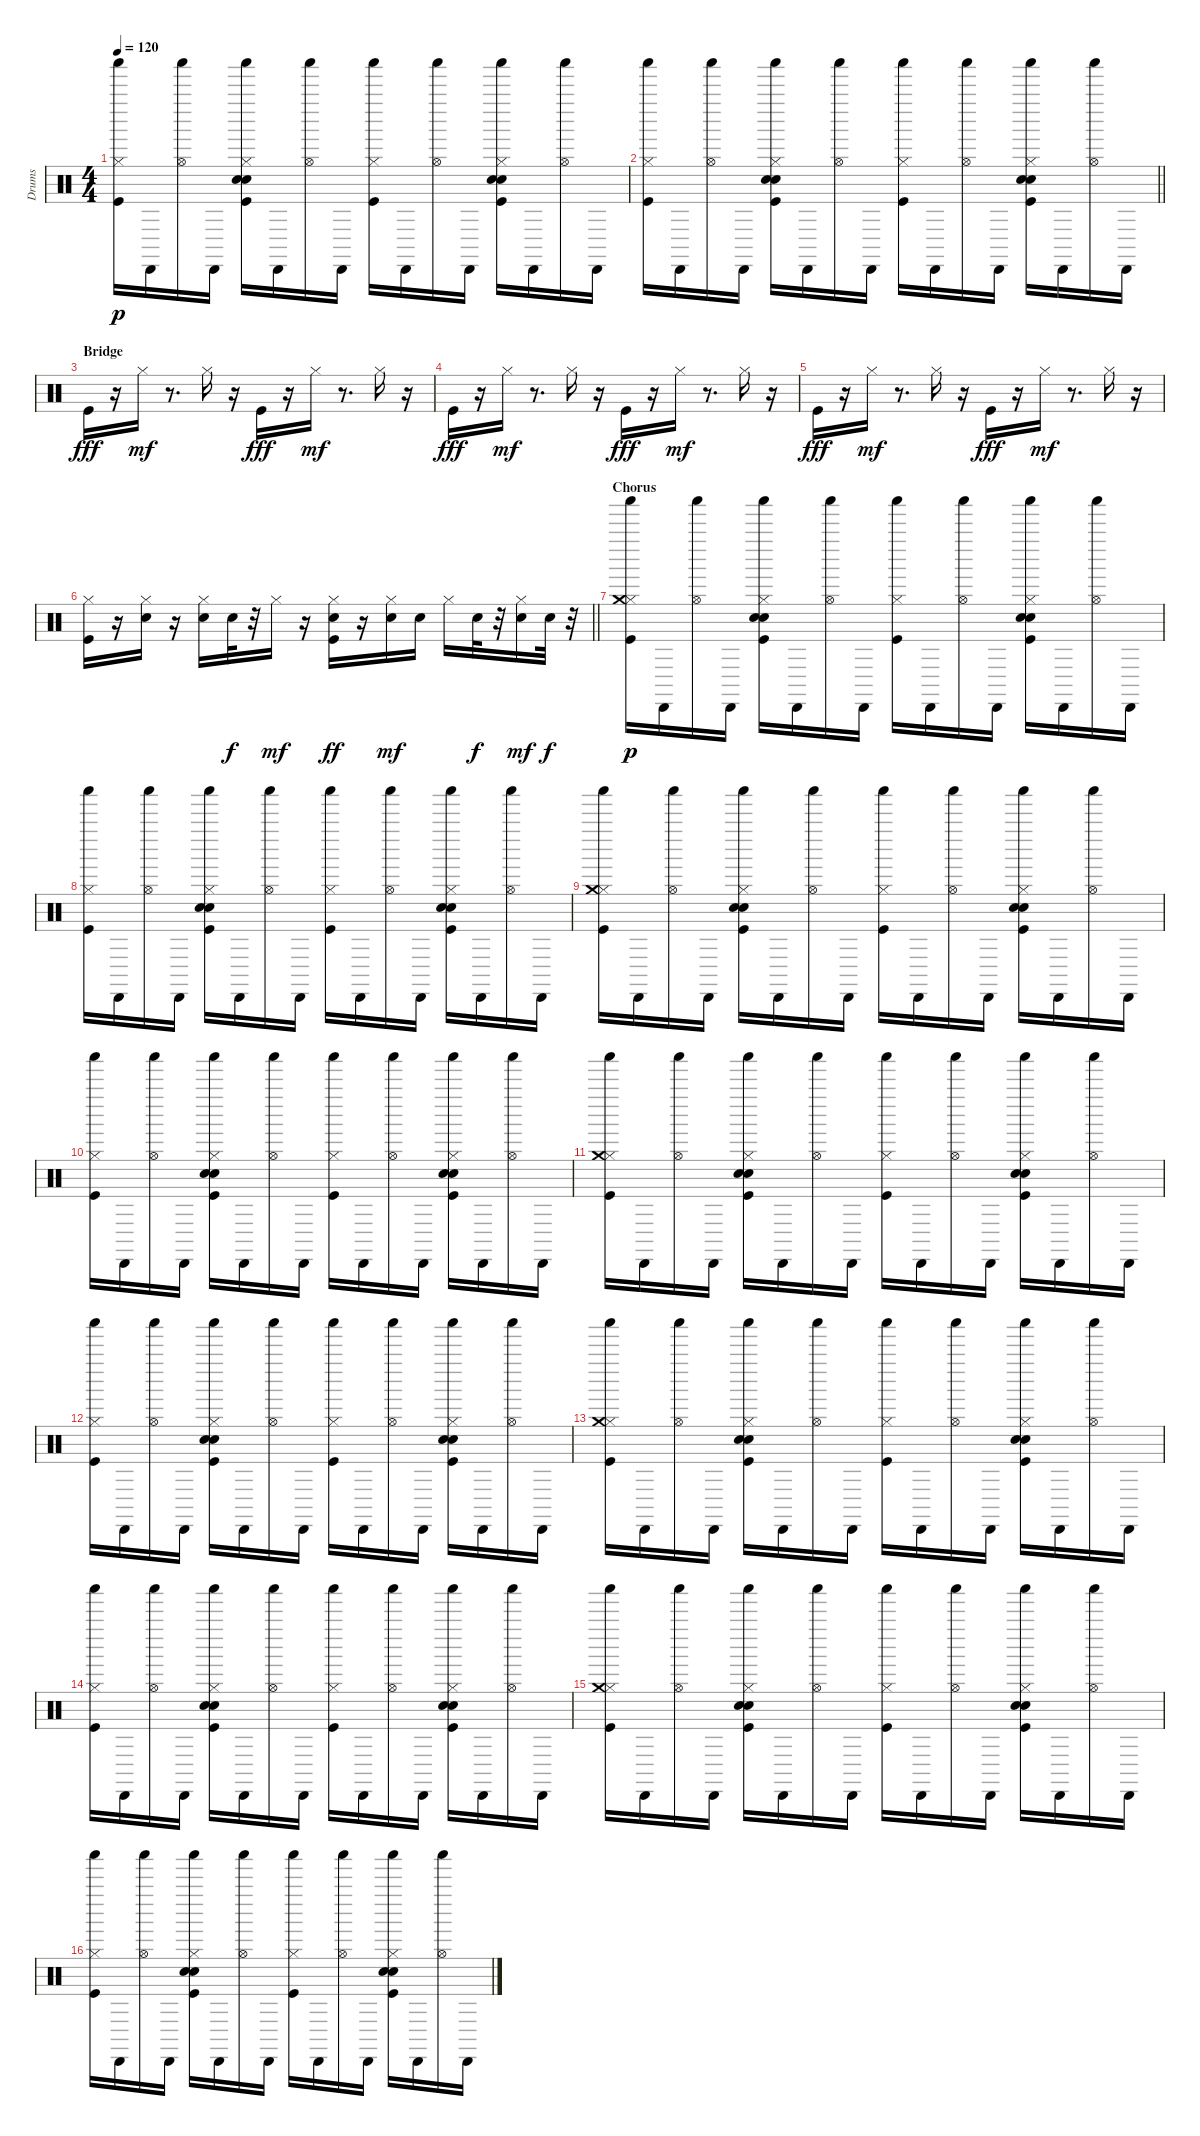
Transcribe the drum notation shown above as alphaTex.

\track ("Drums" "Drums") {instrument percussion}
\staff {score}
\articulation defaults
\ts (4 4)
\tempo 120
\clef neutral
\ks c
("Kick (hit)" "Hi-Hat (closed)" "Shaker (hit)").16{dy p} "Cabasa (hit)".16 ("Hi-Hat (open)" "Shaker (hit)").16 "Cabasa (hit)".16 ("Kick (hit)" "Snare (hit) 2" "Electric Snare (hit)" "Hi-Hat (closed)" "Shaker (hit)").16 "Cabasa (hit)".16 ("Hi-Hat (open)" "Shaker (hit)").16 "Cabasa (hit)".16 ("Kick (hit)" "Hi-Hat (closed)" "Shaker (hit)").16 "Cabasa (hit)".16 ("Hi-Hat (open)" "Shaker (hit)").16 "Cabasa (hit)".16 ("Kick (hit)" "Snare (hit) 2" "Electric Snare (hit)" "Hi-Hat (closed)" "Shaker (hit)").16 "Cabasa (hit)".16 ("Hi-Hat (open)" "Shaker (hit)").16 "Cabasa (hit)".16 |
\barLineRight lightlight
("Kick (hit)" "Hi-Hat (closed)" "Shaker (hit)").16 "Cabasa (hit)".16 ("Hi-Hat (open)" "Shaker (hit)").16 "Cabasa (hit)".16 ("Kick (hit)" "Snare (hit) 2" "Electric Snare (hit)" "Hi-Hat (closed)" "Shaker (hit)").16 "Cabasa (hit)".16 ("Hi-Hat (open)" "Shaker (hit)").16 "Cabasa (hit)".16 ("Kick (hit)" "Hi-Hat (closed)" "Shaker (hit)").16 "Cabasa (hit)".16 ("Hi-Hat (open)" "Shaker (hit)").16 "Cabasa (hit)".16 ("Kick (hit)" "Snare (hit) 2" "Electric Snare (hit)" "Hi-Hat (closed)" "Shaker (hit)").16 "Cabasa (hit)".16 ("Hi-Hat (open)" "Shaker (hit)").16 "Cabasa (hit)".16 |
\section ("" "Bridge")
"Kick (hit)".16{dy fff} r.16 "Hi-Hat (closed)".16{dy mf} r.8{d} "Hi-Hat (closed)".16 r.16 "Kick (hit)".16{dy fff} r.16 "Hi-Hat (closed)".16{dy mf} r.8{d} "Hi-Hat (closed)".16 r.16 |
"Kick (hit)".16{dy fff} r.16 "Hi-Hat (closed)".16{dy mf} r.8{d} "Hi-Hat (closed)".16 r.16 "Kick (hit)".16{dy fff} r.16 "Hi-Hat (closed)".16{dy mf} r.8{d} "Hi-Hat (closed)".16 r.16 |
"Kick (hit)".16{dy fff} r.16 "Hi-Hat (closed)".16{dy mf} r.8{d} "Hi-Hat (closed)".16 r.16 "Kick (hit)".16{dy fff} r.16 "Hi-Hat (closed)".16{dy mf} r.8{d} "Hi-Hat (closed)".16 r.16 |
\barLineRight lightlight
("Kick (hit)" "Hi-Hat (closed)").16 r.16 ("Snare (hit) 2" "Hi-Hat (closed)").16 r.16 ("Hi-Hat (closed)" "Snare (hit) 2").16 "Snare (hit) 2".32{dy f} r.32 "Hi-Hat (closed)".16{dy mf} r.16 ("Hi-Hat (closed)" "Kick (hit)" "Snare (hit) 2").16{dy ff} r.16 ("Snare (hit) 2" "Hi-Hat (closed)").16{dy mf} "Snare (hit) 2".16 "Hi-Hat (closed)".16 "Snare (hit) 2".32{dy f} r.32 ("Snare (hit) 2" "Hi-Hat (closed)").16{dy mf} "Snare (hit) 2".32{dy f} r.32 |
\section ("" "Chorus")
("Kick (hit)" "Hi-Hat (closed)" "Crash medium (hit)" "Shaker (hit)").16{dy p} "Cabasa (hit)".16 ("Hi-Hat (open)" "Shaker (hit)").16 "Cabasa (hit)".16 ("Kick (hit)" "Snare (hit) 2" "Electric Snare (hit)" "Hi-Hat (closed)" "Shaker (hit)").16 "Cabasa (hit)".16 ("Hi-Hat (open)" "Shaker (hit)").16 "Cabasa (hit)".16 ("Kick (hit)" "Hi-Hat (closed)" "Shaker (hit)").16 "Cabasa (hit)".16 ("Hi-Hat (open)" "Shaker (hit)").16 "Cabasa (hit)".16 ("Kick (hit)" "Snare (hit) 2" "Electric Snare (hit)" "Hi-Hat (closed)" "Shaker (hit)").16 "Cabasa (hit)".16 ("Hi-Hat (open)" "Shaker (hit)").16 "Cabasa (hit)".16 |
("Kick (hit)" "Hi-Hat (closed)" "Shaker (hit)").16 "Cabasa (hit)".16 ("Hi-Hat (open)" "Shaker (hit)").16 "Cabasa (hit)".16 ("Kick (hit)" "Snare (hit) 2" "Electric Snare (hit)" "Hi-Hat (closed)" "Shaker (hit)").16 "Cabasa (hit)".16 ("Hi-Hat (open)" "Shaker (hit)").16 "Cabasa (hit)".16 ("Kick (hit)" "Hi-Hat (closed)" "Shaker (hit)").16 "Cabasa (hit)".16 ("Hi-Hat (open)" "Shaker (hit)").16 "Cabasa (hit)".16 ("Kick (hit)" "Snare (hit) 2" "Electric Snare (hit)" "Hi-Hat (closed)" "Shaker (hit)").16 "Cabasa (hit)".16 ("Hi-Hat (open)" "Shaker (hit)").16 "Cabasa (hit)".16 |
("Kick (hit)" "Hi-Hat (closed)" "Crash medium (hit)" "Shaker (hit)").16 "Cabasa (hit)".16 ("Hi-Hat (open)" "Shaker (hit)").16 "Cabasa (hit)".16 ("Kick (hit)" "Snare (hit) 2" "Electric Snare (hit)" "Hi-Hat (closed)" "Shaker (hit)").16 "Cabasa (hit)".16 ("Hi-Hat (open)" "Shaker (hit)").16 "Cabasa (hit)".16 ("Kick (hit)" "Hi-Hat (closed)" "Shaker (hit)").16 "Cabasa (hit)".16 ("Hi-Hat (open)" "Shaker (hit)").16 "Cabasa (hit)".16 ("Kick (hit)" "Snare (hit) 2" "Electric Snare (hit)" "Hi-Hat (closed)" "Shaker (hit)").16 "Cabasa (hit)".16 ("Hi-Hat (open)" "Shaker (hit)").16 "Cabasa (hit)".16 |
("Kick (hit)" "Hi-Hat (closed)" "Shaker (hit)").16 "Cabasa (hit)".16 ("Hi-Hat (open)" "Shaker (hit)").16 "Cabasa (hit)".16 ("Kick (hit)" "Snare (hit) 2" "Electric Snare (hit)" "Hi-Hat (closed)" "Shaker (hit)").16 "Cabasa (hit)".16 ("Hi-Hat (open)" "Shaker (hit)").16 "Cabasa (hit)".16 ("Kick (hit)" "Hi-Hat (closed)" "Shaker (hit)").16 "Cabasa (hit)".16 ("Hi-Hat (open)" "Shaker (hit)").16 "Cabasa (hit)".16 ("Kick (hit)" "Snare (hit) 2" "Electric Snare (hit)" "Hi-Hat (closed)" "Shaker (hit)").16 "Cabasa (hit)".16 ("Hi-Hat (open)" "Shaker (hit)").16 "Cabasa (hit)".16 |
("Kick (hit)" "Hi-Hat (closed)" "Crash medium (hit)" "Shaker (hit)").16 "Cabasa (hit)".16 ("Hi-Hat (open)" "Shaker (hit)").16 "Cabasa (hit)".16 ("Kick (hit)" "Snare (hit) 2" "Electric Snare (hit)" "Hi-Hat (closed)" "Shaker (hit)").16 "Cabasa (hit)".16 ("Hi-Hat (open)" "Shaker (hit)").16 "Cabasa (hit)".16 ("Kick (hit)" "Hi-Hat (closed)" "Shaker (hit)").16 "Cabasa (hit)".16 ("Hi-Hat (open)" "Shaker (hit)").16 "Cabasa (hit)".16 ("Kick (hit)" "Snare (hit) 2" "Electric Snare (hit)" "Hi-Hat (closed)" "Shaker (hit)").16 "Cabasa (hit)".16 ("Hi-Hat (open)" "Shaker (hit)").16 "Cabasa (hit)".16 |
("Kick (hit)" "Hi-Hat (closed)" "Shaker (hit)").16 "Cabasa (hit)".16 ("Hi-Hat (open)" "Shaker (hit)").16 "Cabasa (hit)".16 ("Kick (hit)" "Snare (hit) 2" "Electric Snare (hit)" "Hi-Hat (closed)" "Shaker (hit)").16 "Cabasa (hit)".16 ("Hi-Hat (open)" "Shaker (hit)").16 "Cabasa (hit)".16 ("Kick (hit)" "Hi-Hat (closed)" "Shaker (hit)").16 "Cabasa (hit)".16 ("Hi-Hat (open)" "Shaker (hit)").16 "Cabasa (hit)".16 ("Kick (hit)" "Snare (hit) 2" "Electric Snare (hit)" "Hi-Hat (closed)" "Shaker (hit)").16 "Cabasa (hit)".16 ("Hi-Hat (open)" "Shaker (hit)").16 "Cabasa (hit)".16 |
("Kick (hit)" "Hi-Hat (closed)" "Crash medium (hit)" "Shaker (hit)").16 "Cabasa (hit)".16 ("Hi-Hat (open)" "Shaker (hit)").16 "Cabasa (hit)".16 ("Kick (hit)" "Snare (hit) 2" "Electric Snare (hit)" "Hi-Hat (closed)" "Shaker (hit)").16 "Cabasa (hit)".16 ("Hi-Hat (open)" "Shaker (hit)").16 "Cabasa (hit)".16 ("Kick (hit)" "Hi-Hat (closed)" "Shaker (hit)").16 "Cabasa (hit)".16 ("Hi-Hat (open)" "Shaker (hit)").16 "Cabasa (hit)".16 ("Kick (hit)" "Snare (hit) 2" "Electric Snare (hit)" "Hi-Hat (closed)" "Shaker (hit)").16 "Cabasa (hit)".16 ("Hi-Hat (open)" "Shaker (hit)").16 "Cabasa (hit)".16 |
("Kick (hit)" "Hi-Hat (closed)" "Shaker (hit)").16 "Cabasa (hit)".16 ("Hi-Hat (open)" "Shaker (hit)").16 "Cabasa (hit)".16 ("Kick (hit)" "Snare (hit) 2" "Electric Snare (hit)" "Hi-Hat (closed)" "Shaker (hit)").16 "Cabasa (hit)".16 ("Hi-Hat (open)" "Shaker (hit)").16 "Cabasa (hit)".16 ("Kick (hit)" "Hi-Hat (closed)" "Shaker (hit)").16 "Cabasa (hit)".16 ("Hi-Hat (open)" "Shaker (hit)").16 "Cabasa (hit)".16 ("Kick (hit)" "Snare (hit) 2" "Electric Snare (hit)" "Hi-Hat (closed)" "Shaker (hit)").16 "Cabasa (hit)".16 ("Hi-Hat (open)" "Shaker (hit)").16 "Cabasa (hit)".16 |
("Kick (hit)" "Hi-Hat (closed)" "Crash medium (hit)" "Shaker (hit)").16 "Cabasa (hit)".16 ("Hi-Hat (open)" "Shaker (hit)").16 "Cabasa (hit)".16 ("Kick (hit)" "Snare (hit) 2" "Electric Snare (hit)" "Hi-Hat (closed)" "Shaker (hit)").16 "Cabasa (hit)".16 ("Hi-Hat (open)" "Shaker (hit)").16 "Cabasa (hit)".16 ("Kick (hit)" "Hi-Hat (closed)" "Shaker (hit)").16 "Cabasa (hit)".16 ("Hi-Hat (open)" "Shaker (hit)").16 "Cabasa (hit)".16 ("Kick (hit)" "Snare (hit) 2" "Electric Snare (hit)" "Hi-Hat (closed)" "Shaker (hit)").16 "Cabasa (hit)".16 ("Hi-Hat (open)" "Shaker (hit)").16 "Cabasa (hit)".16 |
("Kick (hit)" "Hi-Hat (closed)" "Shaker (hit)").16 "Cabasa (hit)".16 ("Hi-Hat (open)" "Shaker (hit)").16 "Cabasa (hit)".16 ("Kick (hit)" "Snare (hit) 2" "Electric Snare (hit)" "Hi-Hat (closed)" "Shaker (hit)").16 "Cabasa (hit)".16 ("Hi-Hat (open)" "Shaker (hit)").16 "Cabasa (hit)".16 ("Kick (hit)" "Hi-Hat (closed)" "Shaker (hit)").16 "Cabasa (hit)".16 ("Hi-Hat (open)" "Shaker (hit)").16 "Cabasa (hit)".16 ("Kick (hit)" "Snare (hit) 2" "Electric Snare (hit)" "Hi-Hat (closed)" "Shaker (hit)").16 "Cabasa (hit)".16 ("Hi-Hat (open)" "Shaker (hit)").16 "Cabasa (hit)".16
